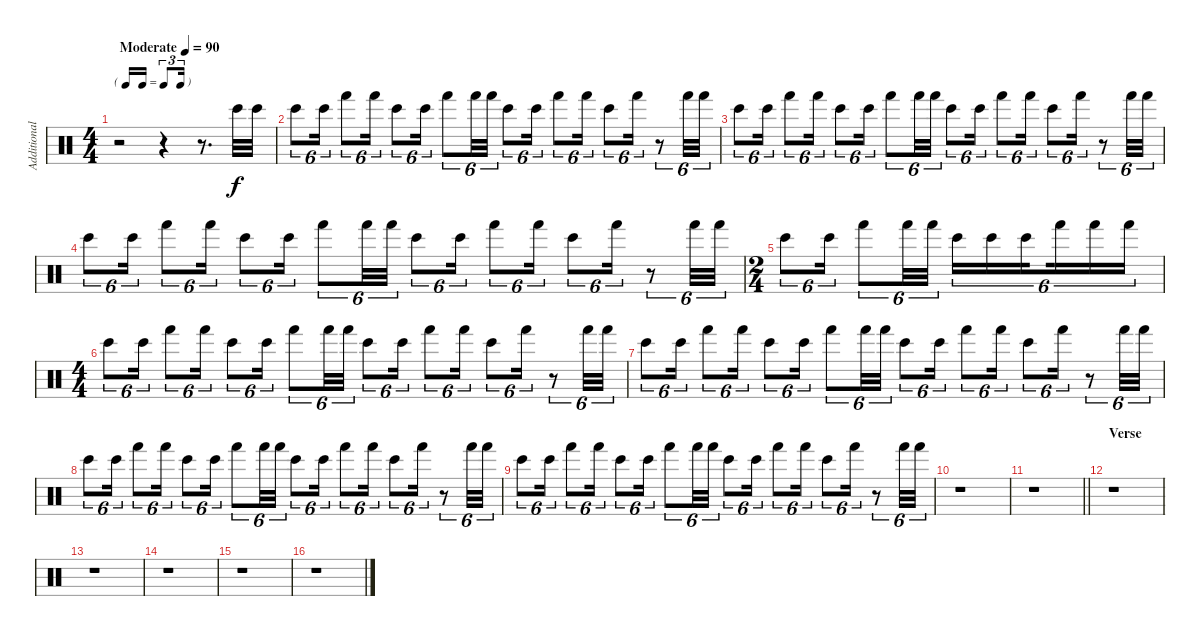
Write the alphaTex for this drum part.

\track ("Additional Percussion" "Additional") {instrument percussion}
\staff {score}
\articulation defaults
\ts (4 4)
\tf triplet16th
\tempo (90 "Moderate")
\clef neutral
\ks c
r.2{dy f} r.4 r.8{d} "Bongo High (hit)".32 "Bongo High (hit)".32 |
"Bongo High (hit)".8{tu (6 4)} "Bongo High (hit)".16{tu (6 4)} "Hand (hit)".8{tu (6 4)} "Hand (hit)".16{tu (6 4)} "Bongo High (hit)".8{tu (6 4)} "Bongo High (hit)".16{tu (6 4)} "Hand (hit)".8{tu (6 4)} "Hand (hit)".32{tu (6 4)} "Hand (hit)".32{tu (6 4)} "Bongo High (hit)".8{tu (6 4)} "Bongo High (hit)".16{tu (6 4)} "Hand (hit)".8{tu (6 4)} "Hand (hit)".16{tu (6 4)} "Bongo High (hit)".8{tu (6 4)} "Hand (hit)".16{tu (6 4)} r.8{tu (6 4)} "Hand (hit)".32{tu (6 4)} "Hand (hit)".32{tu (6 4)} |
"Bongo High (hit)".8{tu (6 4)} "Bongo High (hit)".16{tu (6 4)} "Hand (hit)".8{tu (6 4)} "Hand (hit)".16{tu (6 4)} "Bongo High (hit)".8{tu (6 4)} "Bongo High (hit)".16{tu (6 4)} "Hand (hit)".8{tu (6 4)} "Hand (hit)".32{tu (6 4)} "Hand (hit)".32{tu (6 4)} "Bongo High (hit)".8{tu (6 4)} "Bongo High (hit)".16{tu (6 4)} "Hand (hit)".8{tu (6 4)} "Hand (hit)".16{tu (6 4)} "Bongo High (hit)".8{tu (6 4)} "Hand (hit)".16{tu (6 4)} r.8{tu (6 4)} "Hand (hit)".32{tu (6 4)} "Hand (hit)".32{tu (6 4)} |
"Bongo High (hit)".8{tu (6 4)} "Bongo High (hit)".16{tu (6 4)} "Hand (hit)".8{tu (6 4)} "Hand (hit)".16{tu (6 4)} "Bongo High (hit)".8{tu (6 4)} "Bongo High (hit)".16{tu (6 4)} "Hand (hit)".8{tu (6 4)} "Hand (hit)".32{tu (6 4)} "Hand (hit)".32{tu (6 4)} "Bongo High (hit)".8{tu (6 4)} "Bongo High (hit)".16{tu (6 4)} "Hand (hit)".8{tu (6 4)} "Hand (hit)".16{tu (6 4)} "Bongo High (hit)".8{tu (6 4)} "Hand (hit)".16{tu (6 4)} r.8{tu (6 4)} "Hand (hit)".32{tu (6 4)} "Hand (hit)".32{tu (6 4)} |
\ts (2 4)
"Bongo High (hit)".8{tu (6 4)} "Bongo High (hit)".16{tu (6 4)} "Hand (hit)".8{tu (6 4)} "Hand (hit)".32{tu (6 4)} "Hand (hit)".32{tu (6 4)} "Bongo High (hit)".16{tu (6 4)} "Bongo High (hit)".16{tu (6 4)} "Bongo High (hit)".16{tu (6 4) beam splitsecondary} "Hand (hit)".16{tu (6 4)} "Hand (hit)".16{tu (6 4)} "Hand (hit)".16{tu (6 4)} |
\ts (4 4)
"Bongo High (hit)".8{tu (6 4)} "Bongo High (hit)".16{tu (6 4)} "Hand (hit)".8{tu (6 4)} "Hand (hit)".16{tu (6 4)} "Bongo High (hit)".8{tu (6 4)} "Bongo High (hit)".16{tu (6 4)} "Hand (hit)".8{tu (6 4)} "Hand (hit)".32{tu (6 4)} "Hand (hit)".32{tu (6 4)} "Bongo High (hit)".8{tu (6 4)} "Bongo High (hit)".16{tu (6 4)} "Hand (hit)".8{tu (6 4)} "Hand (hit)".16{tu (6 4)} "Bongo High (hit)".8{tu (6 4)} "Hand (hit)".16{tu (6 4)} r.8{tu (6 4)} "Hand (hit)".32{tu (6 4)} "Hand (hit)".32{tu (6 4)} |
"Bongo High (hit)".8{tu (6 4)} "Bongo High (hit)".16{tu (6 4)} "Hand (hit)".8{tu (6 4)} "Hand (hit)".16{tu (6 4)} "Bongo High (hit)".8{tu (6 4)} "Bongo High (hit)".16{tu (6 4)} "Hand (hit)".8{tu (6 4)} "Hand (hit)".32{tu (6 4)} "Hand (hit)".32{tu (6 4)} "Bongo High (hit)".8{tu (6 4)} "Bongo High (hit)".16{tu (6 4)} "Hand (hit)".8{tu (6 4)} "Hand (hit)".16{tu (6 4)} "Bongo High (hit)".8{tu (6 4)} "Hand (hit)".16{tu (6 4)} r.8{tu (6 4)} "Hand (hit)".32{tu (6 4)} "Hand (hit)".32{tu (6 4)} |
"Bongo High (hit)".8{tu (6 4)} "Bongo High (hit)".16{tu (6 4)} "Hand (hit)".8{tu (6 4)} "Hand (hit)".16{tu (6 4)} "Bongo High (hit)".8{tu (6 4)} "Bongo High (hit)".16{tu (6 4)} "Hand (hit)".8{tu (6 4)} "Hand (hit)".32{tu (6 4)} "Hand (hit)".32{tu (6 4)} "Bongo High (hit)".8{tu (6 4)} "Bongo High (hit)".16{tu (6 4)} "Hand (hit)".8{tu (6 4)} "Hand (hit)".16{tu (6 4)} "Bongo High (hit)".8{tu (6 4)} "Hand (hit)".16{tu (6 4)} r.8{tu (6 4)} "Hand (hit)".32{tu (6 4)} "Hand (hit)".32{tu (6 4)} |
"Bongo High (hit)".8{tu (6 4)} "Bongo High (hit)".16{tu (6 4)} "Hand (hit)".8{tu (6 4)} "Hand (hit)".16{tu (6 4)} "Bongo High (hit)".8{tu (6 4)} "Bongo High (hit)".16{tu (6 4)} "Hand (hit)".8{tu (6 4)} "Hand (hit)".32{tu (6 4)} "Hand (hit)".32{tu (6 4)} "Bongo High (hit)".8{tu (6 4)} "Bongo High (hit)".16{tu (6 4)} "Hand (hit)".8{tu (6 4)} "Hand (hit)".16{tu (6 4)} "Bongo High (hit)".8{tu (6 4)} "Hand (hit)".16{tu (6 4)} r.8{tu (6 4)} "Hand (hit)".32{tu (6 4)} "Hand (hit)".32{tu (6 4)} |
r.1 |
\barLineRight lightlight
r.1 |
\section ("" "Verse")
r.1 |
r.1 |
r.1 |
r.1 |
r.1
